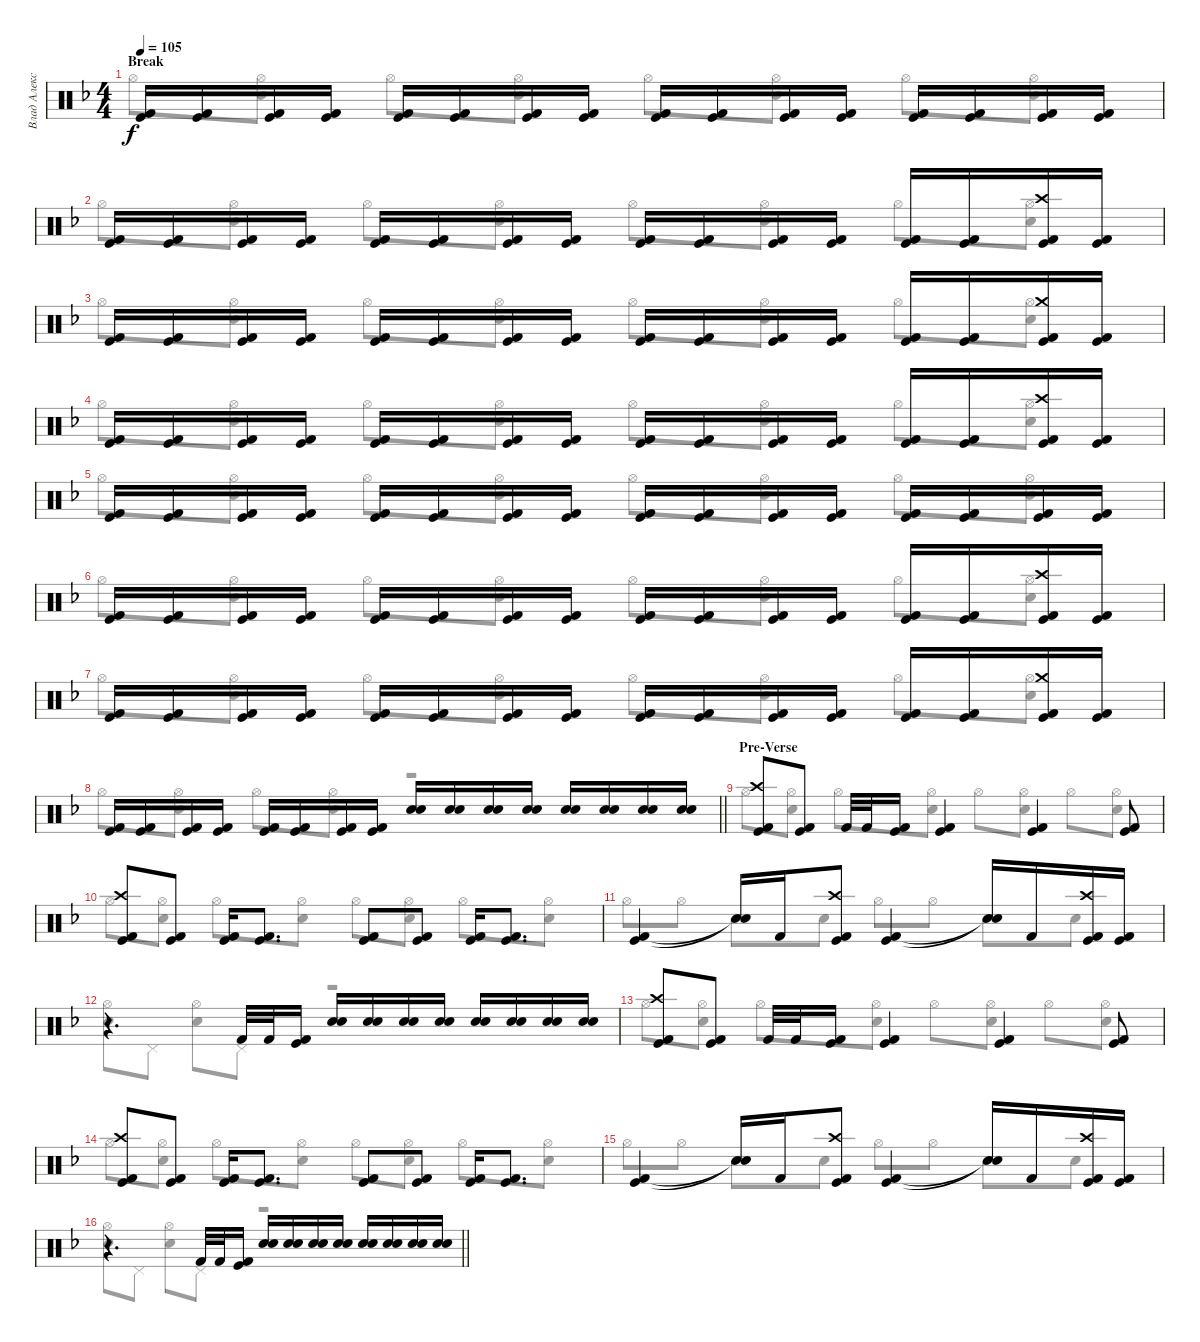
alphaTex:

\track ("Влад Алексеенко" "Влад Алекс") {instrument percussion}
\staff {score}
\articulation defaults
\voice
\ts (4 4)
\section ("" "Break")
\tempo 105
\clef neutral
\ks f
("Kick (hit) 2" "Kick (hit)").16{dy f} ("Kick (hit) 2" "Kick (hit)").16 ("Kick (hit) 2" "Kick (hit)").16 ("Kick (hit) 2" "Kick (hit)").16 ("Kick (hit) 2" "Kick (hit)").16 ("Kick (hit) 2" "Kick (hit)").16 ("Kick (hit) 2" "Kick (hit)").16 ("Kick (hit) 2" "Kick (hit)").16 ("Kick (hit) 2" "Kick (hit)").16 ("Kick (hit) 2" "Kick (hit)").16 ("Kick (hit) 2" "Kick (hit)").16 ("Kick (hit) 2" "Kick (hit)").16 ("Kick (hit) 2" "Kick (hit)").16 ("Kick (hit) 2" "Kick (hit)").16 ("Kick (hit) 2" "Kick (hit)").16 ("Kick (hit) 2" "Kick (hit)").16 |
("Kick (hit) 2" "Kick (hit)").16 ("Kick (hit) 2" "Kick (hit)").16 ("Kick (hit) 2" "Kick (hit)").16 ("Kick (hit) 2" "Kick (hit)").16 ("Kick (hit) 2" "Kick (hit)").16 ("Kick (hit) 2" "Kick (hit)").16 ("Kick (hit) 2" "Kick (hit)").16 ("Kick (hit) 2" "Kick (hit)").16 ("Kick (hit) 2" "Kick (hit)").16 ("Kick (hit) 2" "Kick (hit)").16 ("Kick (hit) 2" "Kick (hit)").16 ("Kick (hit) 2" "Kick (hit)").16 ("Kick (hit) 2" "Kick (hit)").16 ("Kick (hit) 2" "Kick (hit)").16 ("Kick (hit) 2" "Kick (hit)" "Crash high (hit)").16 ("Kick (hit) 2" "Kick (hit)").16 |
("Kick (hit) 2" "Kick (hit)").16 ("Kick (hit) 2" "Kick (hit)").16 ("Kick (hit) 2" "Kick (hit)").16 ("Kick (hit) 2" "Kick (hit)").16 ("Kick (hit) 2" "Kick (hit)").16 ("Kick (hit) 2" "Kick (hit)").16 ("Kick (hit) 2" "Kick (hit)").16 ("Kick (hit) 2" "Kick (hit)").16 ("Kick (hit) 2" "Kick (hit)").16 ("Kick (hit) 2" "Kick (hit)").16 ("Kick (hit) 2" "Kick (hit)").16 ("Kick (hit) 2" "Kick (hit)").16 ("Kick (hit) 2" "Kick (hit)").16 ("Kick (hit) 2" "Kick (hit)").16 ("Kick (hit) 2" "Kick (hit)" "Crash medium (hit)").16 ("Kick (hit) 2" "Kick (hit)").16 |
("Kick (hit) 2" "Kick (hit)").16 ("Kick (hit) 2" "Kick (hit)").16 ("Kick (hit) 2" "Kick (hit)").16 ("Kick (hit) 2" "Kick (hit)").16 ("Kick (hit) 2" "Kick (hit)").16 ("Kick (hit) 2" "Kick (hit)").16 ("Kick (hit) 2" "Kick (hit)").16 ("Kick (hit) 2" "Kick (hit)").16 ("Kick (hit) 2" "Kick (hit)").16 ("Kick (hit) 2" "Kick (hit)").16 ("Kick (hit) 2" "Kick (hit)").16 ("Kick (hit) 2" "Kick (hit)").16 ("Kick (hit) 2" "Kick (hit)").16 ("Kick (hit) 2" "Kick (hit)").16 ("Kick (hit) 2" "Kick (hit)" "Crash high (hit)").16 ("Kick (hit) 2" "Kick (hit)").16 |
("Kick (hit) 2" "Kick (hit)").16 ("Kick (hit) 2" "Kick (hit)").16 ("Kick (hit) 2" "Kick (hit)").16 ("Kick (hit) 2" "Kick (hit)").16 ("Kick (hit) 2" "Kick (hit)").16 ("Kick (hit) 2" "Kick (hit)").16 ("Kick (hit) 2" "Kick (hit)").16 ("Kick (hit) 2" "Kick (hit)").16 ("Kick (hit) 2" "Kick (hit)").16 ("Kick (hit) 2" "Kick (hit)").16 ("Kick (hit) 2" "Kick (hit)").16 ("Kick (hit) 2" "Kick (hit)").16 ("Kick (hit) 2" "Kick (hit)").16 ("Kick (hit) 2" "Kick (hit)").16 ("Kick (hit) 2" "Kick (hit)").16 ("Kick (hit) 2" "Kick (hit)").16 |
("Kick (hit) 2" "Kick (hit)").16 ("Kick (hit) 2" "Kick (hit)").16 ("Kick (hit) 2" "Kick (hit)").16 ("Kick (hit) 2" "Kick (hit)").16 ("Kick (hit) 2" "Kick (hit)").16 ("Kick (hit) 2" "Kick (hit)").16 ("Kick (hit) 2" "Kick (hit)").16 ("Kick (hit) 2" "Kick (hit)").16 ("Kick (hit) 2" "Kick (hit)").16 ("Kick (hit) 2" "Kick (hit)").16 ("Kick (hit) 2" "Kick (hit)").16 ("Kick (hit) 2" "Kick (hit)").16 ("Kick (hit) 2" "Kick (hit)").16 ("Kick (hit) 2" "Kick (hit)").16 ("Kick (hit) 2" "Kick (hit)" "Crash high (hit)").16 ("Kick (hit) 2" "Kick (hit)").16 |
("Kick (hit) 2" "Kick (hit)").16 ("Kick (hit) 2" "Kick (hit)").16 ("Kick (hit) 2" "Kick (hit)").16 ("Kick (hit) 2" "Kick (hit)").16 ("Kick (hit) 2" "Kick (hit)").16 ("Kick (hit) 2" "Kick (hit)").16 ("Kick (hit) 2" "Kick (hit)").16 ("Kick (hit) 2" "Kick (hit)").16 ("Kick (hit) 2" "Kick (hit)").16 ("Kick (hit) 2" "Kick (hit)").16 ("Kick (hit) 2" "Kick (hit)").16 ("Kick (hit) 2" "Kick (hit)").16 ("Kick (hit) 2" "Kick (hit)").16 ("Kick (hit) 2" "Kick (hit)").16 ("Kick (hit) 2" "Kick (hit)" "Crash medium (hit)").16 ("Kick (hit) 2" "Kick (hit)").16 |
\barLineRight lightlight
("Kick (hit) 2" "Kick (hit)").16 ("Kick (hit) 2" "Kick (hit)").16 ("Kick (hit) 2" "Kick (hit)").16 ("Kick (hit) 2" "Kick (hit)").16 ("Kick (hit) 2" "Kick (hit)").16 ("Kick (hit) 2" "Kick (hit)").16 ("Kick (hit) 2" "Kick (hit)").16 ("Kick (hit) 2" "Kick (hit)").16 ("Snare (hit) 2" "Snare (hit) 2").16 ("Snare (hit) 2" "Snare (hit) 2").16 ("Snare (hit) 2" "Snare (hit) 2").16 ("Snare (hit) 2" "Snare (hit) 2").16 ("Snare (hit) 2" "Snare (hit) 2").16 ("Snare (hit) 2" "Snare (hit) 2").16 ("Snare (hit) 2" "Snare (hit) 2").16 ("Snare (hit) 2" "Snare (hit) 2").16 |
\section ("" "Pre-Verse")
("Kick (hit) 2" "Kick (hit)" "Crash high (hit)").8 ("Kick (hit) 2" "Kick (hit)").8 "Kick (hit) 2".32 "Kick (hit) 2".32 ("Kick (hit) 2" "Kick (hit)").16 ("Kick (hit) 2" "Kick (hit)").4 ("Kick (hit) 2" "Kick (hit)").4 ("Kick (hit) 2" "Kick (hit)").8 |
("Kick (hit) 2" "Kick (hit)" "Crash high (hit)").8 ("Kick (hit) 2" "Kick (hit)").8 ("Kick (hit) 2" "Kick (hit)").16 ("Kick (hit) 2" "Kick (hit)").8{d} ("Kick (hit) 2" "Kick (hit)").8 ("Kick (hit) 2" "Kick (hit)").8 ("Kick (hit) 2" "Kick (hit)").16 ("Kick (hit) 2" "Kick (hit)").8{d} |
("Kick (hit) 2" "Kick (hit)").4 ("Snare (hit)"{t} "Snare (hit)"{t}).16 "Kick (hit) 2".16 ("Kick (hit) 2" "Kick (hit)" "Crash high (hit)").8 ("Kick (hit) 2" "Kick (hit)").4 ("Snare (hit)"{t} "Snare (hit)"{t}).16 "Kick (hit) 2".16 ("Kick (hit) 2" "Kick (hit)" "Crash high (hit)").16 ("Kick (hit) 2" "Kick (hit)").16 |
r.4{d} "Kick (hit) 2".32 "Kick (hit) 2".32 ("Kick (hit) 2" "Kick (hit)").16 ("Snare (hit) 2" "Snare (hit) 2").16 ("Snare (hit) 2" "Snare (hit) 2").16 ("Snare (hit) 2" "Snare (hit) 2").16 ("Snare (hit) 2" "Snare (hit) 2").16 ("Snare (hit) 2" "Snare (hit) 2").16 ("Snare (hit) 2" "Snare (hit) 2").16 ("Snare (hit) 2" "Snare (hit) 2").16 ("Snare (hit) 2" "Snare (hit) 2").16 |
("Kick (hit) 2" "Kick (hit)" "Crash high (hit)").8 ("Kick (hit) 2" "Kick (hit)").8 "Kick (hit) 2".32 "Kick (hit) 2".32 ("Kick (hit) 2" "Kick (hit)").16 ("Kick (hit) 2" "Kick (hit)").4 ("Kick (hit) 2" "Kick (hit)").4 ("Kick (hit) 2" "Kick (hit)").8 |
("Kick (hit) 2" "Kick (hit)" "Crash high (hit)").8 ("Kick (hit) 2" "Kick (hit)").8 ("Kick (hit) 2" "Kick (hit)").16 ("Kick (hit) 2" "Kick (hit)").8{d} ("Kick (hit) 2" "Kick (hit)").8 ("Kick (hit) 2" "Kick (hit)").8 ("Kick (hit) 2" "Kick (hit)").16 ("Kick (hit) 2" "Kick (hit)").8{d} |
("Kick (hit) 2" "Kick (hit)").4 ("Snare (hit)"{t} "Snare (hit)"{t}).16 "Kick (hit) 2".16 ("Kick (hit) 2" "Kick (hit)" "Crash high (hit)").8 ("Kick (hit) 2" "Kick (hit)").4 ("Snare (hit)"{t} "Snare (hit)"{t}).16 "Kick (hit) 2".16 ("Kick (hit) 2" "Kick (hit)" "Crash high (hit)").16 ("Kick (hit) 2" "Kick (hit)").16 |
\barLineRight lightlight
r.4{d} "Kick (hit) 2".32 "Kick (hit) 2".32 ("Kick (hit) 2" "Kick (hit)").16 ("Snare (hit) 2" "Snare (hit) 2").16 ("Snare (hit) 2" "Snare (hit) 2").16 ("Snare (hit) 2" "Snare (hit) 2").16 ("Snare (hit) 2" "Snare (hit) 2").16 ("Snare (hit) 2" "Snare (hit) 2").16 ("Snare (hit) 2" "Snare (hit) 2").16 ("Snare (hit) 2" "Snare (hit) 2").16 ("Snare (hit) 2" "Snare (hit) 2").16
\voice
\clef neutral
\ottava regular
\simile none
\ks f "Hi-Hat (open)".8{dy f}
("Hi-Hat (open)" "Snare (hit) 2").8 "Hi-Hat (open)".8 ("Hi-Hat (open)" "Snare (hit) 2").8 "Hi-Hat (open)".8 ("Hi-Hat (open)" "Snare (hit) 2").8 "Hi-Hat (open)".8 ("Hi-Hat (open)" "Snare (hit) 2").8 |
"Hi-Hat (open)".8 ("Hi-Hat (open)" "Snare (hit) 2").8 "Hi-Hat (open)".8 ("Hi-Hat (open)" "Snare (hit) 2").8 "Hi-Hat (open)".8 ("Hi-Hat (open)" "Snare (hit) 2").8 "Hi-Hat (open)".8 ("Hi-Hat (open)" "Snare (hit) 2").8 |
"Hi-Hat (open)".8 ("Hi-Hat (open)" "Snare (hit) 2").8 "Hi-Hat (open)".8 ("Hi-Hat (open)" "Snare (hit) 2").8 "Hi-Hat (open)".8 ("Hi-Hat (open)" "Snare (hit) 2").8 "Hi-Hat (open)".8 ("Hi-Hat (open)" "Snare (hit) 2").8 |
"Hi-Hat (open)".8 ("Hi-Hat (open)" "Snare (hit) 2").8 "Hi-Hat (open)".8 ("Hi-Hat (open)" "Snare (hit) 2").8 "Hi-Hat (open)".8 ("Hi-Hat (open)" "Snare (hit) 2").8 "Hi-Hat (open)".8 ("Hi-Hat (open)" "Snare (hit) 2").8 |
"Hi-Hat (open)".8 ("Hi-Hat (open)" "Snare (hit) 2").8 "Hi-Hat (open)".8 ("Hi-Hat (open)" "Snare (hit) 2").8 "Hi-Hat (open)".8 ("Hi-Hat (open)" "Snare (hit) 2").8 "Hi-Hat (open)".8 ("Hi-Hat (open)" "Snare (hit) 2").8 |
"Hi-Hat (open)".8 ("Hi-Hat (open)" "Snare (hit) 2").8 "Hi-Hat (open)".8 ("Hi-Hat (open)" "Snare (hit) 2").8 "Hi-Hat (open)".8 ("Hi-Hat (open)" "Snare (hit) 2").8 "Hi-Hat (open)".8 ("Hi-Hat (open)" "Snare (hit) 2").8 |
"Hi-Hat (open)".8 ("Hi-Hat (open)" "Snare (hit) 2").8 "Hi-Hat (open)".8 ("Hi-Hat (open)" "Snare (hit) 2").8 "Hi-Hat (open)".8 ("Hi-Hat (open)" "Snare (hit) 2").8 "Hi-Hat (open)".8 ("Hi-Hat (open)" "Snare (hit) 2").8 |
\barLineRight lightlight "Hi-Hat (open)".8
("Hi-Hat (open)" "Snare (hit) 2").8 "Hi-Hat (open)".8 ("Hi-Hat (open)" "Snare (hit) 2").8 r.2 |
"Hi-Hat (open)".8 ("Hi-Hat (open)" "Snare (hit) 2").8 "Hi-Hat (open)".8 ("Hi-Hat (open)" "Snare (hit) 2").8 "Hi-Hat (open)".8 ("Hi-Hat (open)" "Snare (hit) 2").8 "Hi-Hat (open)".8 ("Hi-Hat (open)" "Snare (hit) 2").8 |
"Hi-Hat (open)".8 ("Hi-Hat (open)" "Snare (hit) 2").8 "Hi-Hat (open)".8 ("Hi-Hat (open)" "Snare (hit) 2").8 "Hi-Hat (open)".8 ("Hi-Hat (open)" "Snare (hit) 2").8 "Hi-Hat (open)".8 ("Hi-Hat (open)" "Snare (hit) 2").8 |
"Hi-Hat (open)".8 "Hi-Hat (open)".8 "Snare (hit) 2".8 "Snare (hit) 2".8 "Hi-Hat (open)".8 "Hi-Hat (open)".8 "Snare (hit) 2".8 "Snare (hit) 2".8 |
("Snare (hit) 2" "Hi-Hat (open)").8 "Pedal Hi-Hat (hit)".8 ("Snare (hit) 2" "Hi-Hat (open)").8 "Pedal Hi-Hat (hit)".8 r.2 |
"Hi-Hat (open)".8 ("Hi-Hat (open)" "Snare (hit) 2").8 "Hi-Hat (open)".8 ("Hi-Hat (open)" "Snare (hit) 2").8 "Hi-Hat (open)".8 ("Hi-Hat (open)" "Snare (hit) 2").8 "Hi-Hat (open)".8 ("Hi-Hat (open)" "Snare (hit) 2").8 |
"Hi-Hat (open)".8 ("Hi-Hat (open)" "Snare (hit) 2").8 "Hi-Hat (open)".8 ("Hi-Hat (open)" "Snare (hit) 2").8 "Hi-Hat (open)".8 ("Hi-Hat (open)" "Snare (hit) 2").8 "Hi-Hat (open)".8 ("Hi-Hat (open)" "Snare (hit) 2").8 |
"Hi-Hat (open)".8 "Hi-Hat (open)".8 "Snare (hit) 2".8 "Snare (hit) 2".8 "Hi-Hat (open)".8 "Hi-Hat (open)".8 "Snare (hit) 2".8 "Snare (hit) 2".8 |
\barLineRight lightlight
("Snare (hit) 2" "Hi-Hat (open)").8 "Pedal Hi-Hat (hit)".8 ("Snare (hit) 2" "Hi-Hat (open)").8 "Pedal Hi-Hat (hit)".8 r.2
